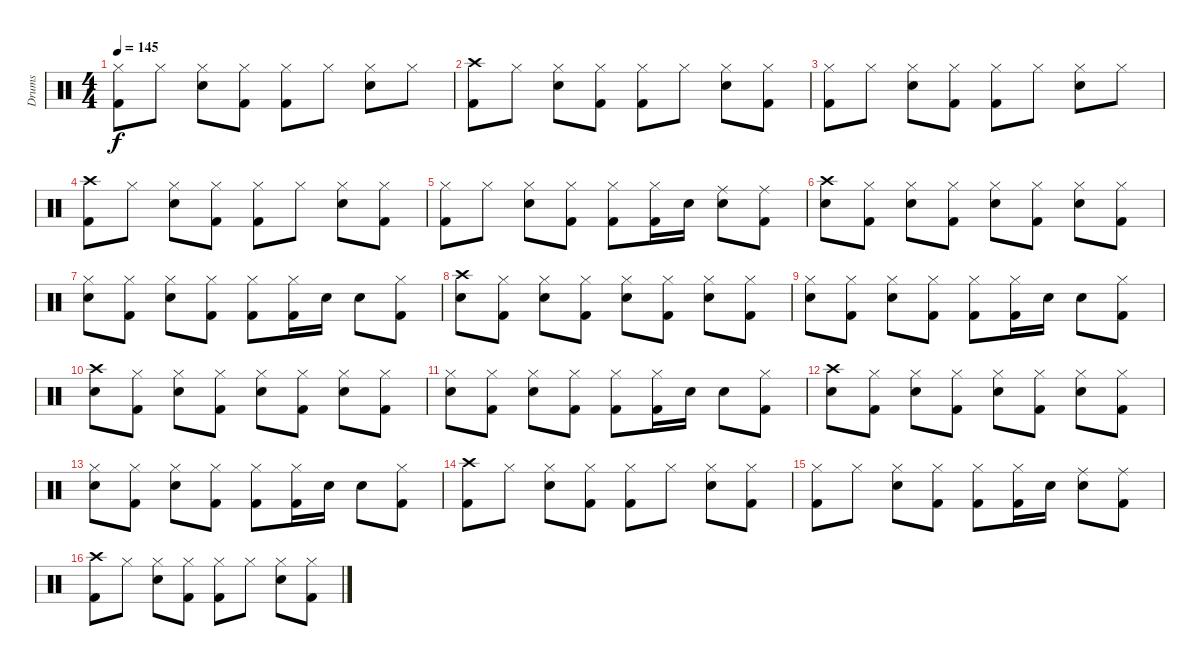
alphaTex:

\track ("Drums" "Drums") {instrument percussion}
\staff {score}
\articulation defaults
\ts (4 4)
\tempo 145
\clef neutral
\ks c
("Kick (hit) 2" "Hi-Hat (closed)").8{dy f} "Hi-Hat (closed)".8 ("Electric Snare (hit)" "Hi-Hat (closed)").8 ("Kick (hit) 2" "Hi-Hat (closed)").8 ("Kick (hit) 2" "Hi-Hat (closed)").8 "Hi-Hat (closed)".8 ("Electric Snare (hit)" "Hi-Hat (closed)").8 "Hi-Hat (closed)".8 |
("Kick (hit) 2" "Crash high (hit)").8 "Hi-Hat (closed)".8 ("Electric Snare (hit)" "Hi-Hat (closed)").8 ("Kick (hit) 2" "Hi-Hat (closed)").8 ("Kick (hit) 2" "Hi-Hat (closed)").8 "Hi-Hat (closed)".8 ("Electric Snare (hit)" "Hi-Hat (closed)").8 ("Kick (hit) 2" "Hi-Hat (closed)").8 |
("Kick (hit) 2" "Hi-Hat (closed)").8 "Hi-Hat (closed)".8 ("Electric Snare (hit)" "Hi-Hat (closed)").8 ("Kick (hit) 2" "Hi-Hat (closed)").8 ("Kick (hit) 2" "Hi-Hat (closed)").8 "Hi-Hat (closed)".8 ("Electric Snare (hit)" "Hi-Hat (closed)").8 "Hi-Hat (closed)".8 |
("Kick (hit) 2" "Crash high (hit)").8 "Hi-Hat (closed)".8 ("Electric Snare (hit)" "Hi-Hat (closed)").8 ("Kick (hit) 2" "Hi-Hat (closed)").8 ("Kick (hit) 2" "Hi-Hat (closed)").8 "Hi-Hat (closed)".8 ("Electric Snare (hit)" "Hi-Hat (closed)").8 ("Kick (hit) 2" "Hi-Hat (closed)").8 |
("Kick (hit) 2" "Hi-Hat (closed)").8 "Hi-Hat (closed)".8 ("Electric Snare (hit)" "Hi-Hat (closed)").8 ("Kick (hit) 2" "Hi-Hat (closed)").8 ("Kick (hit) 2" "Hi-Hat (closed)").8 ("Kick (hit) 2" "Hi-Hat (closed)").16 "Electric Snare (hit)".16 ("Electric Snare (hit)" "Ride (middle)").8 ("Kick (hit) 2" "Ride (middle)").8 |
("Electric Snare (hit)" "Crash high (hit)").8 ("Kick (hit) 2" "Hi-Hat (closed)").8 ("Electric Snare (hit)" "Hi-Hat (closed)").8 ("Kick (hit) 2" "Hi-Hat (closed)").8 ("Electric Snare (hit)" "Hi-Hat (closed)").8 ("Kick (hit) 2" "Hi-Hat (closed)").8 ("Electric Snare (hit)" "Hi-Hat (closed)").8 ("Kick (hit) 2" "Hi-Hat (closed)").8 |
("Electric Snare (hit)" "Hi-Hat (closed)").8 ("Kick (hit) 2" "Hi-Hat (closed)").8 ("Electric Snare (hit)" "Hi-Hat (closed)").8 ("Kick (hit) 2" "Hi-Hat (closed)").8 ("Kick (hit) 2" "Hi-Hat (closed)").8 ("Kick (hit) 2" "Hi-Hat (closed)").16 "Electric Snare (hit)".16 "Electric Snare (hit)".8 ("Kick (hit) 2" "Hi-Hat (closed)").8 |
("Electric Snare (hit)" "Crash high (hit)").8 ("Kick (hit) 2" "Hi-Hat (closed)").8 ("Electric Snare (hit)" "Hi-Hat (closed)").8 ("Kick (hit) 2" "Hi-Hat (closed)").8 ("Electric Snare (hit)" "Hi-Hat (closed)").8 ("Kick (hit) 2" "Hi-Hat (closed)").8 ("Electric Snare (hit)" "Hi-Hat (closed)").8 ("Kick (hit) 2" "Hi-Hat (closed)").8 |
("Electric Snare (hit)" "Hi-Hat (closed)").8 ("Kick (hit) 2" "Hi-Hat (closed)").8 ("Electric Snare (hit)" "Hi-Hat (closed)").8 ("Kick (hit) 2" "Hi-Hat (closed)").8 ("Kick (hit) 2" "Hi-Hat (closed)").8 ("Kick (hit) 2" "Hi-Hat (closed)").16 "Electric Snare (hit)".16 "Electric Snare (hit)".8 ("Kick (hit) 2" "Hi-Hat (closed)").8 |
("Electric Snare (hit)" "Crash high (hit)").8 ("Kick (hit) 2" "Hi-Hat (closed)").8 ("Electric Snare (hit)" "Hi-Hat (closed)").8 ("Kick (hit) 2" "Hi-Hat (closed)").8 ("Electric Snare (hit)" "Hi-Hat (closed)").8 ("Kick (hit) 2" "Hi-Hat (closed)").8 ("Electric Snare (hit)" "Hi-Hat (closed)").8 ("Kick (hit) 2" "Hi-Hat (closed)").8 |
("Electric Snare (hit)" "Hi-Hat (closed)").8 ("Kick (hit) 2" "Hi-Hat (closed)").8 ("Electric Snare (hit)" "Hi-Hat (closed)").8 ("Kick (hit) 2" "Hi-Hat (closed)").8 ("Kick (hit) 2" "Hi-Hat (closed)").8 ("Kick (hit) 2" "Hi-Hat (closed)").16 "Electric Snare (hit)".16 "Electric Snare (hit)".8 ("Kick (hit) 2" "Hi-Hat (closed)").8 |
("Electric Snare (hit)" "Crash high (hit)").8 ("Kick (hit) 2" "Hi-Hat (closed)").8 ("Electric Snare (hit)" "Hi-Hat (closed)").8 ("Kick (hit) 2" "Hi-Hat (closed)").8 ("Electric Snare (hit)" "Hi-Hat (closed)").8 ("Kick (hit) 2" "Hi-Hat (closed)").8 ("Electric Snare (hit)" "Hi-Hat (closed)").8 ("Kick (hit) 2" "Hi-Hat (closed)").8 |
("Electric Snare (hit)" "Hi-Hat (closed)").8 ("Kick (hit) 2" "Hi-Hat (closed)").8 ("Electric Snare (hit)" "Hi-Hat (closed)").8 ("Kick (hit) 2" "Hi-Hat (closed)").8 ("Kick (hit) 2" "Hi-Hat (closed)").8 ("Kick (hit) 2" "Hi-Hat (closed)").16 "Electric Snare (hit)".16 "Electric Snare (hit)".8 ("Kick (hit) 2" "Hi-Hat (closed)").8 |
("Kick (hit) 2" "Crash high (hit)").8 "Hi-Hat (closed)".8 ("Electric Snare (hit)" "Hi-Hat (closed)").8 ("Kick (hit) 2" "Hi-Hat (closed)").8 ("Kick (hit) 2" "Hi-Hat (closed)").8 "Hi-Hat (closed)".8 ("Electric Snare (hit)" "Hi-Hat (closed)").8 ("Kick (hit) 2" "Hi-Hat (closed)").8 |
("Kick (hit) 2" "Hi-Hat (closed)").8 "Hi-Hat (closed)".8 ("Electric Snare (hit)" "Hi-Hat (closed)").8 ("Kick (hit) 2" "Hi-Hat (closed)").8 ("Kick (hit) 2" "Hi-Hat (closed)").8 ("Kick (hit) 2" "Hi-Hat (closed)").16 "Electric Snare (hit)".16 ("Electric Snare (hit)" "Ride (middle)").8 ("Kick (hit) 2" "Ride (middle)").8 |
("Kick (hit) 2" "Crash high (hit)").8 "Hi-Hat (closed)".8 ("Electric Snare (hit)" "Hi-Hat (closed)").8 ("Kick (hit) 2" "Hi-Hat (closed)").8 ("Kick (hit) 2" "Hi-Hat (closed)").8 "Hi-Hat (closed)".8 ("Electric Snare (hit)" "Hi-Hat (closed)").8 ("Kick (hit) 2" "Hi-Hat (closed)").8
